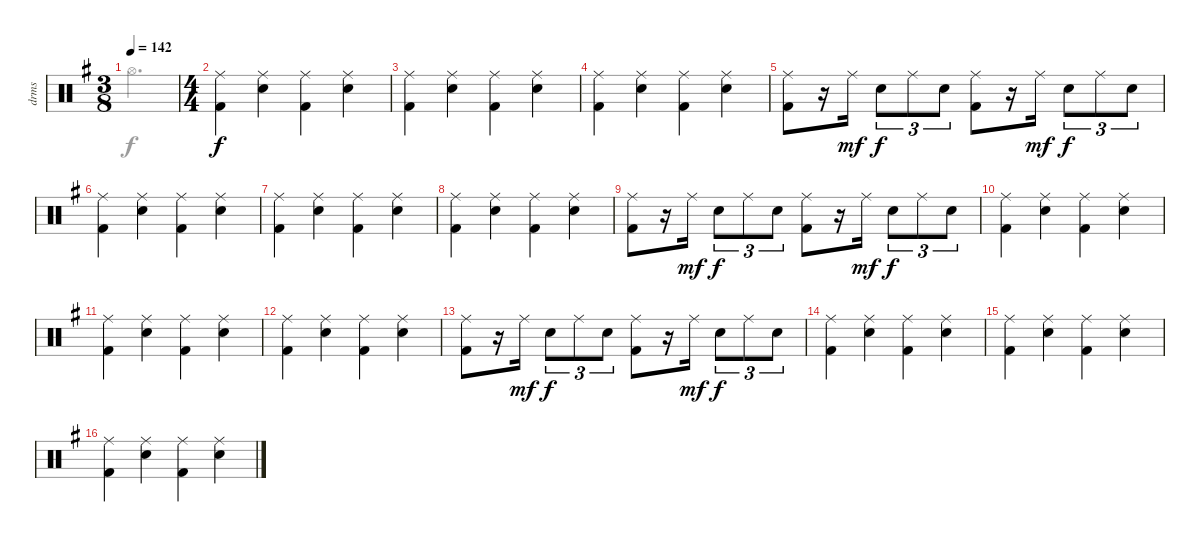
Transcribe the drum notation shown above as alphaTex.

\track ("drms" "drms") {instrument percussion}
\staff {score}
\articulation defaults
\voice
\ts (3 8)
\tempo 142
\clef neutral
\ks g
|
\ts (4 4)
("Ride (middle)" "Kick (hit) 2").4{dy f} ("Ride (middle)" "Snare (hit) 2").4 ("Ride (middle)" "Kick (hit) 2").4 ("Ride (middle)" "Snare (hit) 2").4 |
("Ride (middle)" "Kick (hit) 2").4 ("Ride (middle)" "Snare (hit) 2").4 ("Ride (middle)" "Kick (hit) 2").4 ("Ride (middle)" "Snare (hit) 2").4 |
("Ride (middle)" "Kick (hit) 2").4 ("Ride (middle)" "Snare (hit) 2").4 ("Ride (middle)" "Kick (hit) 2").4 ("Ride (middle)" "Snare (hit) 2").4 |
("Ride (middle)" "Kick (hit) 2").8 r.16 "Ride (middle)".16{dy mf} "Snare (hit) 2".8{tu (3 2) dy f} "Ride (middle)".8{tu (3 2)} "Snare (hit) 2".8{tu (3 2)} ("Ride (middle)" "Kick (hit) 2").8 r.16 "Ride (middle)".16{dy mf} "Snare (hit) 2".8{tu (3 2) dy f} "Ride (middle)".8{tu (3 2)} "Snare (hit) 2".8{tu (3 2)} |
("Ride (middle)" "Kick (hit) 2").4 ("Ride (middle)" "Snare (hit) 2").4 ("Ride (middle)" "Kick (hit) 2").4 ("Ride (middle)" "Snare (hit) 2").4 |
("Ride (middle)" "Kick (hit) 2").4 ("Ride (middle)" "Snare (hit) 2").4 ("Ride (middle)" "Kick (hit) 2").4 ("Ride (middle)" "Snare (hit) 2").4 |
("Ride (middle)" "Kick (hit) 2").4 ("Ride (middle)" "Snare (hit) 2").4 ("Ride (middle)" "Kick (hit) 2").4 ("Ride (middle)" "Snare (hit) 2").4 |
("Ride (middle)" "Kick (hit) 2").8 r.16 "Ride (middle)".16{dy mf} "Snare (hit) 2".8{tu (3 2) dy f} "Ride (middle)".8{tu (3 2)} "Snare (hit) 2".8{tu (3 2)} ("Ride (middle)" "Kick (hit) 2").8 r.16 "Ride (middle)".16{dy mf} "Snare (hit) 2".8{tu (3 2) dy f} "Ride (middle)".8{tu (3 2)} "Snare (hit) 2".8{tu (3 2)} |
("Ride (middle)" "Kick (hit) 2").4 ("Ride (middle)" "Snare (hit) 2").4 ("Ride (middle)" "Kick (hit) 2").4 ("Ride (middle)" "Snare (hit) 2").4 |
("Ride (middle)" "Kick (hit) 2").4 ("Ride (middle)" "Snare (hit) 2").4 ("Ride (middle)" "Kick (hit) 2").4 ("Ride (middle)" "Snare (hit) 2").4 |
("Ride (middle)" "Kick (hit) 2").4 ("Ride (middle)" "Snare (hit) 2").4 ("Ride (middle)" "Kick (hit) 2").4 ("Ride (middle)" "Snare (hit) 2").4 |
("Ride (middle)" "Kick (hit) 2").8 r.16 "Ride (middle)".16{dy mf} "Snare (hit) 2".8{tu (3 2) dy f} "Ride (middle)".8{tu (3 2)} "Snare (hit) 2".8{tu (3 2)} ("Ride (middle)" "Kick (hit) 2").8 r.16 "Ride (middle)".16{dy mf} "Snare (hit) 2".8{tu (3 2) dy f} "Ride (middle)".8{tu (3 2)} "Snare (hit) 2".8{tu (3 2)} |
("Ride (middle)" "Kick (hit) 2").4 ("Ride (middle)" "Snare (hit) 2").4 ("Ride (middle)" "Kick (hit) 2").4 ("Ride (middle)" "Snare (hit) 2").4 |
("Ride (middle)" "Kick (hit) 2").4 ("Ride (middle)" "Snare (hit) 2").4 ("Ride (middle)" "Kick (hit) 2").4 ("Ride (middle)" "Snare (hit) 2").4 |
("Ride (middle)" "Kick (hit) 2").4 ("Ride (middle)" "Snare (hit) 2").4 ("Ride (middle)" "Kick (hit) 2").4 ("Ride (middle)" "Snare (hit) 2").4
\voice
\clef neutral
\ottava regular
\simile none
\ks g "Hi-Hat (open)".4{d dy f}
|
|
|
|
|
|
|
|
|
|
|
|
|
|
|
